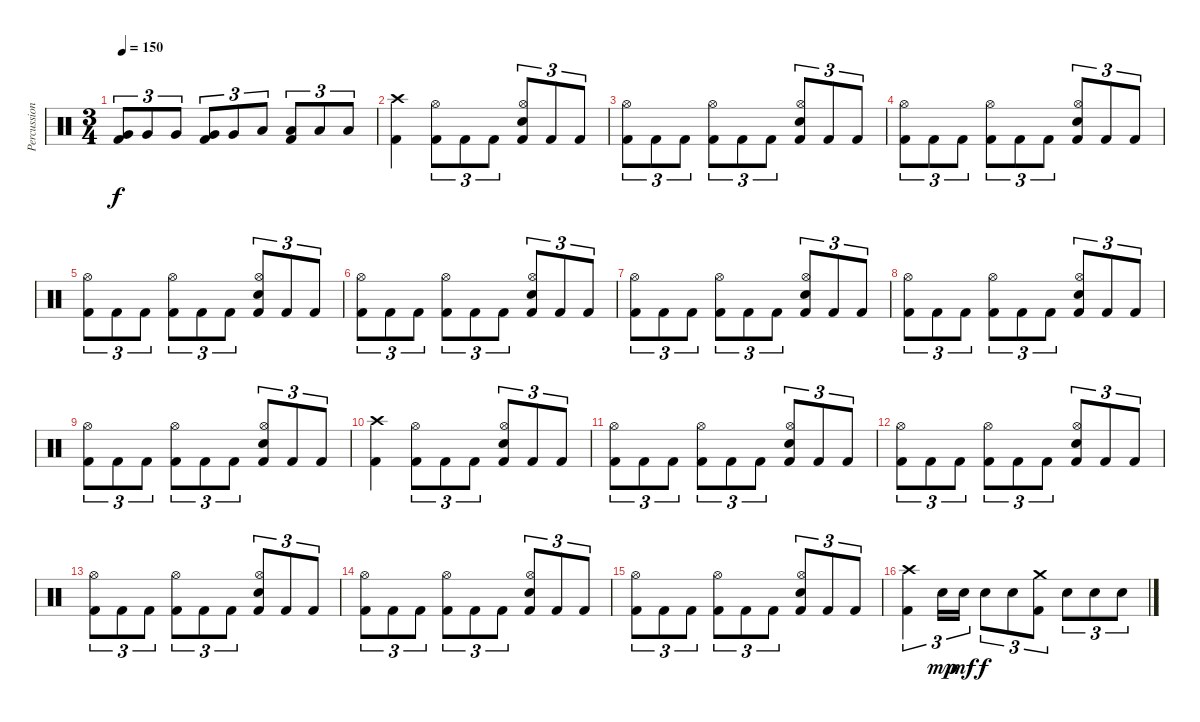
\track ("Percussion" "Percussion") {instrument percussion}
\staff {score}
\articulation defaults
\ts (3 4)
\tempo 150
\clef neutral
\ks c
("Very Low Tom (hit)" "Kick (hit) 2").8{tu (3 2) dy f} "Very Low Tom (hit)".8{tu (3 2)} "Very Low Tom (hit)".8{tu (3 2)} ("Very Low Tom (hit)" "Kick (hit) 2").8{tu (3 2)} "Very Low Tom (hit)".8{tu (3 2)} "Low Floor Tom (hit)".8{tu (3 2)} ("Low Floor Tom (hit)" "Kick (hit) 2").8{tu (3 2)} "Low Floor Tom (hit)".8{tu (3 2)} "Low Floor Tom (hit)".8{tu (3 2)} |
("Crash high (hit)" "Kick (hit) 2").4 ("Hi-Hat (open)" "Kick (hit) 2").8{tu (3 2)} "Kick (hit) 2".8{tu (3 2)} "Kick (hit) 2".8{tu (3 2)} ("Hi-Hat (open)" "Electric Snare (hit)" "Kick (hit) 2").8{tu (3 2)} "Kick (hit) 2".8{tu (3 2)} "Kick (hit) 2".8{tu (3 2)} |
("Hi-Hat (open)" "Kick (hit) 2").8{tu (3 2)} "Kick (hit) 2".8{tu (3 2)} "Kick (hit) 2".8{tu (3 2)} ("Hi-Hat (open)" "Kick (hit) 2").8{tu (3 2)} "Kick (hit) 2".8{tu (3 2)} "Kick (hit) 2".8{tu (3 2)} ("Hi-Hat (open)" "Electric Snare (hit)" "Kick (hit) 2").8{tu (3 2)} "Kick (hit) 2".8{tu (3 2)} "Kick (hit) 2".8{tu (3 2)} |
("Hi-Hat (open)" "Kick (hit) 2").8{tu (3 2)} "Kick (hit) 2".8{tu (3 2)} "Kick (hit) 2".8{tu (3 2)} ("Hi-Hat (open)" "Kick (hit) 2").8{tu (3 2)} "Kick (hit) 2".8{tu (3 2)} "Kick (hit) 2".8{tu (3 2)} ("Hi-Hat (open)" "Electric Snare (hit)" "Kick (hit) 2").8{tu (3 2)} "Kick (hit) 2".8{tu (3 2)} "Kick (hit) 2".8{tu (3 2)} |
("Hi-Hat (open)" "Kick (hit) 2").8{tu (3 2)} "Kick (hit) 2".8{tu (3 2)} "Kick (hit) 2".8{tu (3 2)} ("Hi-Hat (open)" "Kick (hit) 2").8{tu (3 2)} "Kick (hit) 2".8{tu (3 2)} "Kick (hit) 2".8{tu (3 2)} ("Hi-Hat (open)" "Electric Snare (hit)" "Kick (hit) 2").8{tu (3 2)} "Kick (hit) 2".8{tu (3 2)} "Kick (hit) 2".8{tu (3 2)} |
("Hi-Hat (open)" "Kick (hit) 2").8{tu (3 2)} "Kick (hit) 2".8{tu (3 2)} "Kick (hit) 2".8{tu (3 2)} ("Hi-Hat (open)" "Kick (hit) 2").8{tu (3 2)} "Kick (hit) 2".8{tu (3 2)} "Kick (hit) 2".8{tu (3 2)} ("Hi-Hat (open)" "Electric Snare (hit)" "Kick (hit) 2").8{tu (3 2)} "Kick (hit) 2".8{tu (3 2)} "Kick (hit) 2".8{tu (3 2)} |
("Hi-Hat (open)" "Kick (hit) 2").8{tu (3 2)} "Kick (hit) 2".8{tu (3 2)} "Kick (hit) 2".8{tu (3 2)} ("Hi-Hat (open)" "Kick (hit) 2").8{tu (3 2)} "Kick (hit) 2".8{tu (3 2)} "Kick (hit) 2".8{tu (3 2)} ("Hi-Hat (open)" "Electric Snare (hit)" "Kick (hit) 2").8{tu (3 2)} "Kick (hit) 2".8{tu (3 2)} "Kick (hit) 2".8{tu (3 2)} |
("Hi-Hat (open)" "Kick (hit) 2").8{tu (3 2)} "Kick (hit) 2".8{tu (3 2)} "Kick (hit) 2".8{tu (3 2)} ("Hi-Hat (open)" "Kick (hit) 2").8{tu (3 2)} "Kick (hit) 2".8{tu (3 2)} "Kick (hit) 2".8{tu (3 2)} ("Hi-Hat (open)" "Electric Snare (hit)" "Kick (hit) 2").8{tu (3 2)} "Kick (hit) 2".8{tu (3 2)} "Kick (hit) 2".8{tu (3 2)} |
("Hi-Hat (open)" "Kick (hit) 2").8{tu (3 2)} "Kick (hit) 2".8{tu (3 2)} "Kick (hit) 2".8{tu (3 2)} ("Hi-Hat (open)" "Kick (hit) 2").8{tu (3 2)} "Kick (hit) 2".8{tu (3 2)} "Kick (hit) 2".8{tu (3 2)} ("Hi-Hat (open)" "Electric Snare (hit)" "Kick (hit) 2").8{tu (3 2)} "Kick (hit) 2".8{tu (3 2)} "Kick (hit) 2".8{tu (3 2)} |
("Crash high (hit)" "Kick (hit) 2").4 ("Hi-Hat (open)" "Kick (hit) 2").8{tu (3 2)} "Kick (hit) 2".8{tu (3 2)} "Kick (hit) 2".8{tu (3 2)} ("Hi-Hat (open)" "Electric Snare (hit)" "Kick (hit) 2").8{tu (3 2)} "Kick (hit) 2".8{tu (3 2)} "Kick (hit) 2".8{tu (3 2)} |
("Hi-Hat (open)" "Kick (hit) 2").8{tu (3 2)} "Kick (hit) 2".8{tu (3 2)} "Kick (hit) 2".8{tu (3 2)} ("Hi-Hat (open)" "Kick (hit) 2").8{tu (3 2)} "Kick (hit) 2".8{tu (3 2)} "Kick (hit) 2".8{tu (3 2)} ("Hi-Hat (open)" "Electric Snare (hit)" "Kick (hit) 2").8{tu (3 2)} "Kick (hit) 2".8{tu (3 2)} "Kick (hit) 2".8{tu (3 2)} |
("Hi-Hat (open)" "Kick (hit) 2").8{tu (3 2)} "Kick (hit) 2".8{tu (3 2)} "Kick (hit) 2".8{tu (3 2)} ("Hi-Hat (open)" "Kick (hit) 2").8{tu (3 2)} "Kick (hit) 2".8{tu (3 2)} "Kick (hit) 2".8{tu (3 2)} ("Hi-Hat (open)" "Electric Snare (hit)" "Kick (hit) 2").8{tu (3 2)} "Kick (hit) 2".8{tu (3 2)} "Kick (hit) 2".8{tu (3 2)} |
("Hi-Hat (open)" "Kick (hit) 2").8{tu (3 2)} "Kick (hit) 2".8{tu (3 2)} "Kick (hit) 2".8{tu (3 2)} ("Hi-Hat (open)" "Kick (hit) 2").8{tu (3 2)} "Kick (hit) 2".8{tu (3 2)} "Kick (hit) 2".8{tu (3 2)} ("Hi-Hat (open)" "Electric Snare (hit)" "Kick (hit) 2").8{tu (3 2)} "Kick (hit) 2".8{tu (3 2)} "Kick (hit) 2".8{tu (3 2)} |
("Hi-Hat (open)" "Kick (hit) 2").8{tu (3 2)} "Kick (hit) 2".8{tu (3 2)} "Kick (hit) 2".8{tu (3 2)} ("Hi-Hat (open)" "Kick (hit) 2").8{tu (3 2)} "Kick (hit) 2".8{tu (3 2)} "Kick (hit) 2".8{tu (3 2)} ("Hi-Hat (open)" "Electric Snare (hit)" "Kick (hit) 2").8{tu (3 2)} "Kick (hit) 2".8{tu (3 2)} "Kick (hit) 2".8{tu (3 2)} |
("Hi-Hat (open)" "Kick (hit) 2").8{tu (3 2)} "Kick (hit) 2".8{tu (3 2)} "Kick (hit) 2".8{tu (3 2)} ("Hi-Hat (open)" "Kick (hit) 2").8{tu (3 2)} "Kick (hit) 2".8{tu (3 2)} "Kick (hit) 2".8{tu (3 2)} ("Hi-Hat (open)" "Electric Snare (hit)" "Kick (hit) 2").8{tu (3 2)} "Kick (hit) 2".8{tu (3 2)} "Kick (hit) 2".8{tu (3 2)} |
("Crash high (hit)" "Kick (hit) 2").4{tu (3 2)} "Electric Snare (hit)".16{tu (3 2) dy mp} "Electric Snare (hit)".16{tu (3 2) dy mf} "Electric Snare (hit)".8{tu (3 2) dy f} "Electric Snare (hit)".8{tu (3 2)} ("Crash medium (hit)" "Kick (hit) 2").8{tu (3 2)} "Electric Snare (hit)".8{tu (3 2)} "Electric Snare (hit)".8{tu (3 2)} "Electric Snare (hit)".8{tu (3 2)}
